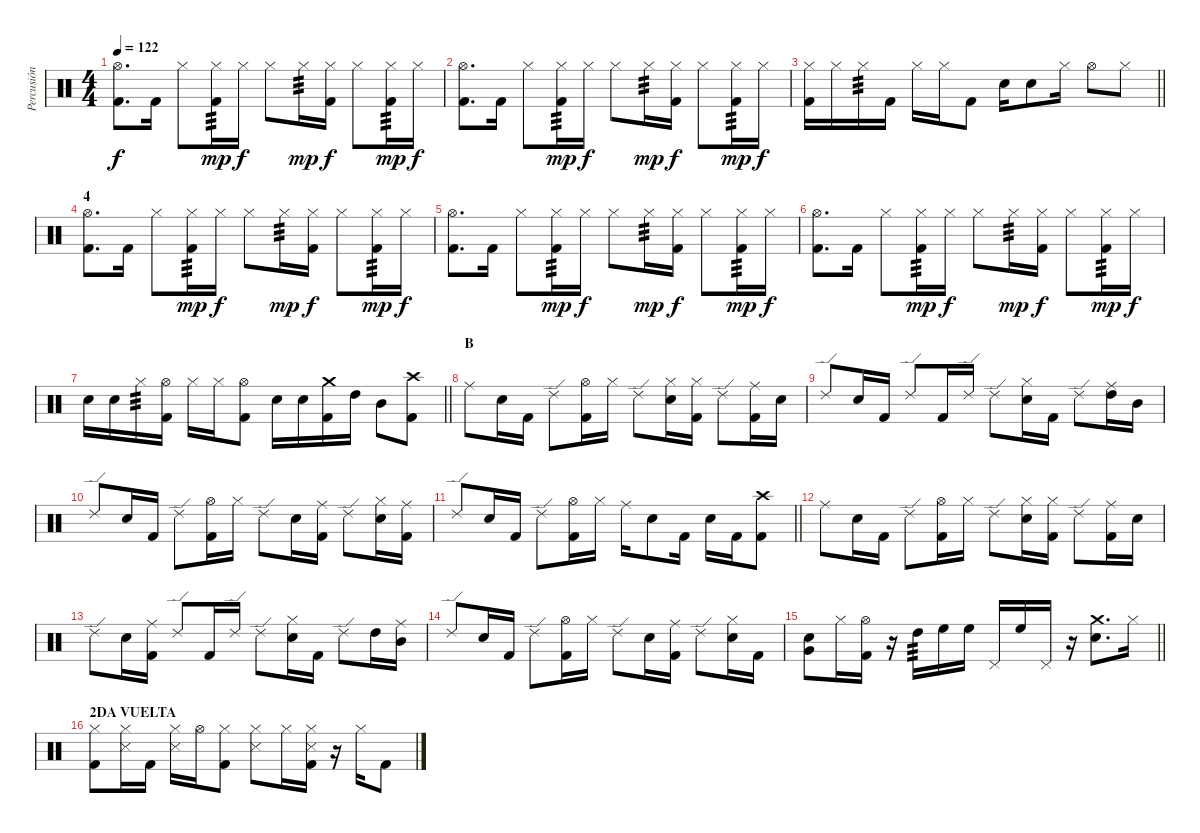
\track ("Percusión" "Percusión") {instrument percussion}
\staff {score}
\articulation defaults
\ts (4 4)
\tempo 122
\clef neutral
\ks c
("Hi-Hat (open)" "Kick (hit) 2").8{d dy f} "Kick (hit) 2".16 "Hi-Hat (closed)".8 ("Kick (hit) 2" "Hi-Hat (closed)").16{tp 3 dy mp} "Hi-Hat (closed)".16{dy f} "Hi-Hat (closed)".8 "Hi-Hat (closed)".16{tp 3 dy mp} ("Kick (hit) 2" "Hi-Hat (closed)").16{dy f} "Hi-Hat (closed)".8 ("Kick (hit) 2" "Hi-Hat (closed)").16{tp 3 dy mp} "Hi-Hat (closed)".16{dy f} |
("Hi-Hat (open)" "Kick (hit) 2").8{d} "Kick (hit) 2".16 "Hi-Hat (closed)".8 ("Kick (hit) 2" "Hi-Hat (closed)").16{tp 3 dy mp} "Hi-Hat (closed)".16{dy f} "Hi-Hat (closed)".8 "Hi-Hat (closed)".16{tp 3 dy mp} ("Kick (hit) 2" "Hi-Hat (closed)").16{dy f} "Hi-Hat (closed)".8 ("Kick (hit) 2" "Hi-Hat (closed)").16{tp 3 dy mp} "Hi-Hat (closed)".16{dy f} |
\barLineRight lightlight
("Hi-Hat (closed)" "Kick (hit) 2").16 "Hi-Hat (closed)".16 "Hi-Hat (closed)".16{tp 3} "Kick (hit) 2".16 "Hi-Hat (closed)".16 "Hi-Hat (closed)".16 "Kick (hit) 2".8 "Electric Snare (hit)".16 "Electric Snare (hit)".8 "Hi-Hat (closed)".16 "Hi-Hat (open)".8 "Hi-Hat (closed)".8 |
\section ("" "4")
("Hi-Hat (open)" "Kick (hit) 2").8{d} "Kick (hit) 2".16 "Hi-Hat (closed)".8 ("Kick (hit) 2" "Hi-Hat (closed)").16{tp 3 dy mp} "Hi-Hat (closed)".16{dy f} "Hi-Hat (closed)".8 "Hi-Hat (closed)".16{tp 3 dy mp} ("Kick (hit) 2" "Hi-Hat (closed)").16{dy f} "Hi-Hat (closed)".8 ("Kick (hit) 2" "Hi-Hat (closed)").16{tp 3 dy mp} "Hi-Hat (closed)".16{dy f} |
("Hi-Hat (open)" "Kick (hit) 2").8{d} "Kick (hit) 2".16 "Hi-Hat (closed)".8 ("Kick (hit) 2" "Hi-Hat (closed)").16{tp 3 dy mp} "Hi-Hat (closed)".16{dy f} "Hi-Hat (closed)".8 "Hi-Hat (closed)".16{tp 3 dy mp} ("Kick (hit) 2" "Hi-Hat (closed)").16{dy f} "Hi-Hat (closed)".8 ("Kick (hit) 2" "Hi-Hat (closed)").16{tp 3 dy mp} "Hi-Hat (closed)".16{dy f} |
("Hi-Hat (open)" "Kick (hit) 2").8{d} "Kick (hit) 2".16 "Hi-Hat (closed)".8 ("Kick (hit) 2" "Hi-Hat (closed)").16{tp 3 dy mp} "Hi-Hat (closed)".16{dy f} "Hi-Hat (closed)".8 "Hi-Hat (closed)".16{tp 3 dy mp} ("Kick (hit) 2" "Hi-Hat (closed)").16{dy f} "Hi-Hat (closed)".8 ("Kick (hit) 2" "Hi-Hat (closed)").16{tp 3 dy mp} "Hi-Hat (closed)".16{dy f} |
\barLineRight lightlight "Electric Snare (hit)".16 "Electric Snare (hit)".16 "Hi-Hat (closed)".16{tp 3}
("Hi-Hat (open)" "Kick (hit) 2").16 "Hi-Hat (closed)".16 "Hi-Hat (closed)".16 ("Hi-Hat (open)" "Kick (hit) 2").8 "Electric Snare (hit)".16 "Electric Snare (hit)".16 ("Crash medium (hit)" "Kick (hit) 2").16 "High Tom (hit)".16 "Mid Tom (hit)".8 ("Crash high (hit)" "Kick (hit) 2").8 |
\section ("" "B")
"Ride (middle)".8 "Electric Snare (hit)".16 "Kick (hit) 2".16 "Ride (edge) 2".8 ("Hi-Hat (open)" "Kick (hit) 2").16 "Hi-Hat (closed)".16 "Ride (edge) 2".8 ("Electric Snare (hit)" "Hi-Hat (closed)").16 ("Kick (hit) 2" "Hi-Hat (closed)").16 "Ride (edge) 2".8 ("Ride (middle)" "Kick (hit) 2").16 "Electric Snare (hit)".16 |
"Ride (edge) 2".8 "Electric Snare (hit)".16 "Kick (hit) 2".16 "Ride (edge) 2".8 "Kick (hit) 2".16 "Ride (edge) 2".16 "Ride (edge) 2".8 ("Hi-Hat (closed)" "Electric Snare (hit)").16 "Kick (hit) 2".16 "Ride (edge) 2".8 ("Ride (middle)" "High Tom (hit)").16 "Mid Tom (hit)".16 |
"Ride (edge) 2".8 "Electric Snare (hit)".16 "Kick (hit) 2".16 "Ride (edge) 2".8 ("Hi-Hat (open)" "Kick (hit) 2").16 "Hi-Hat (closed)".16 "Ride (edge) 2".8 "Electric Snare (hit)".16 ("Ride (middle)" "Kick (hit) 2").16 "Ride (edge) 2".8 ("Hi-Hat (closed)" "Electric Snare (hit)").16 ("Ride (middle)" "Kick (hit) 2").16 |
\barLineRight lightlight "Ride (edge) 2".8 "Electric Snare (hit)".16 "Kick (hit) 2".16 "Ride (edge) 2".8
("Hi-Hat (open)" "Kick (hit) 2").16 "Hi-Hat (closed)".16 "Ride (middle)".16 "Electric Snare (hit)".8 "Kick (hit) 2".16 "Electric Snare (hit)".16 "Kick (hit) 2".16 ("Crash high (hit)" "Kick (hit) 2").8 |
"Ride (middle)".8 "Electric Snare (hit)".16 "Kick (hit) 2".16 "Ride (edge) 2".8 ("Hi-Hat (open)" "Kick (hit) 2").16 "Hi-Hat (closed)".16 "Ride (edge) 2".8 ("Electric Snare (hit)" "Hi-Hat (closed)").16 ("Kick (hit) 2" "Hi-Hat (closed)").16 "Ride (edge) 2".8 ("Ride (middle)" "Kick (hit) 2").16 "Electric Snare (hit)".16 |
"Ride (edge) 2".8 "Electric Snare (hit)".16 ("Ride (middle)" "Kick (hit) 2").16 "Ride (edge) 2".8 "Kick (hit) 2".16 "Ride (edge) 2".16 "Ride (edge) 2".8 ("Hi-Hat (closed)" "Electric Snare (hit)").16 "Kick (hit) 2".16 "Ride (edge) 2".8 "High Tom (hit)".16 ("Ride (middle)" "Mid Tom (hit)").16 |
"Ride (edge) 2".8 "Electric Snare (hit)".16 "Kick (hit) 2".16 "Ride (edge) 2".8 ("Hi-Hat (open)" "Kick (hit) 2").16 "Hi-Hat (closed)".16 "Ride (edge) 2".8 "Electric Snare (hit)".16 ("Ride (middle)" "Kick (hit) 2").16 "Ride (edge) 2".8 ("Hi-Hat (closed)" "Electric Snare (hit)").16 "Kick (hit) 2".16 |
\barLineRight lightlight
("Electric Snare (hit)" "Very Low Tom (hit)").8 "Hi-Hat (closed)".16 ("Hi-Hat (open)" "Kick (hit) 2").16 r.16 "High Tom (hit)".16{tp 3} "High Floor Tom (hit)".16 "High Floor Tom (hit)".16 "Pedal Hi-Hat (hit)".16 "High Floor Tom (hit)".16 "Pedal Hi-Hat (hit)".16 r.16 ("Electric Snare (hit)" "Crash medium (hit)").8{d} "Hi-Hat (closed)".16 |
\section ("" "2DA VUELTA")
("Hi-Hat (closed)" "Kick (hit) 2").8 ("Hi-Hat (closed)" "Snare (side stick) 3").16 "Kick (hit) 2".16 ("Hi-Hat (closed)" "Snare (side stick) 3").16 "Hi-Hat (open)".16 ("Hi-Hat (closed)" "Kick (hit) 2").8 ("Hi-Hat (closed)" "Snare (side stick) 3").8 "Hi-Hat (closed)".16 ("Snare (side stick) 3" "Hi-Hat (closed)" "Kick (hit) 2").16 r.16 "Hi-Hat (closed)".16 "Kick (hit) 2".8
